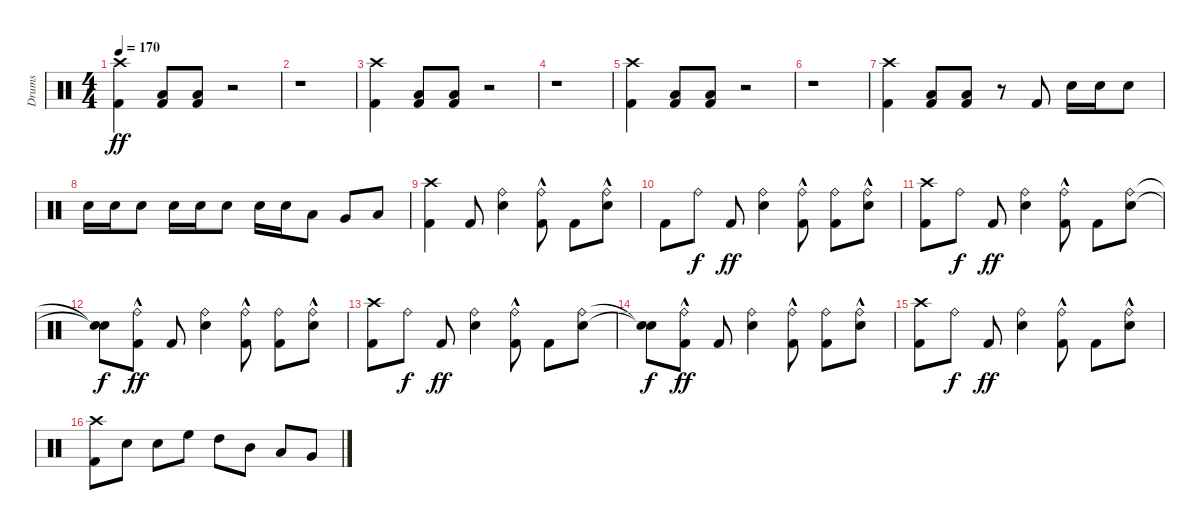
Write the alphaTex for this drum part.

\track ("Drums" "Drums") {instrument percussion}
\staff {score}
\articulation defaults
\ts (4 4)
\tempo 170
\clef neutral
\ks c
("Kick (hit) 2" "Crash high (hit)").4{dy ff} ("Kick (hit) 2" "Low Floor Tom (hit)").8 ("Kick (hit) 2" "Low Floor Tom (hit)").8 r.2 |
r.1 |
("Kick (hit) 2" "Crash high (hit)").4 ("Kick (hit) 2" "Low Floor Tom (hit)").8 ("Kick (hit) 2" "Low Floor Tom (hit)").8 r.2 |
r.1 |
("Kick (hit) 2" "Crash high (hit)").4 ("Kick (hit) 2" "Low Floor Tom (hit)").8 ("Kick (hit) 2" "Low Floor Tom (hit)").8 r.2 |
r.1 |
("Kick (hit) 2" "Crash high (hit)").4 ("Kick (hit) 2" "Low Floor Tom (hit)").8 ("Kick (hit) 2" "Low Floor Tom (hit)").8 r.8 "Kick (hit) 2".8 "Snare (hit) 2".16 "Snare (hit) 2".16 "Snare (hit) 2".8 |
"Snare (hit) 2".16 "Snare (hit) 2".16 "Snare (hit) 2".8 "Snare (hit) 2".16 "Snare (hit) 2".16 "Snare (hit) 2".8 "Snare (hit) 2".16 "Snare (hit) 2".16 "Low Tom (hit)".8 "Very Low Tom (hit)".8 "Low Floor Tom (hit)".8 |
("Kick (hit) 2" "Crash high (hit)").4 "Kick (hit) 2".8 ("Snare (hit) 2" "Ride (bell)").4 ("Kick (hit) 2" "Ride (bell)"{hac}).8 "Kick (hit) 2".8 ("Snare (hit) 2" "Ride (bell)"{hac}).8 |
"Kick (hit) 2".8 "Ride (bell)".8{dy f} "Kick (hit) 2".8{dy ff} ("Snare (hit) 2" "Ride (bell)").4 ("Kick (hit) 2" "Ride (bell)"{hac}).8 ("Kick (hit) 2" "Ride (bell)").8 ("Snare (hit) 2" "Ride (bell)"{hac}).8 |
("Kick (hit) 2" "Crash high (hit)").8 "Ride (bell)".8{dy f} "Kick (hit) 2".8{dy ff} ("Snare (hit) 2" "Ride (bell)").4 ("Kick (hit) 2" "Ride (bell)"{hac}).8 "Kick (hit) 2".8 ("Snare (hit) 2" "Ride (bell)").8 |
("Snare (hit)"{t} "Snare (hit)"{t}).8{dy f} ("Kick (hit) 2" "Ride (bell)"{hac}).8{dy ff} "Kick (hit) 2".8 ("Snare (hit) 2" "Ride (bell)").4 ("Kick (hit) 2" "Ride (bell)"{hac}).8 ("Kick (hit) 2" "Ride (bell)").8 ("Snare (hit) 2" "Ride (bell)"{hac}).8 |
("Kick (hit) 2" "Crash high (hit)").8 "Ride (bell)".8{dy f} "Kick (hit) 2".8{dy ff} ("Snare (hit) 2" "Ride (bell)").4 ("Kick (hit) 2" "Ride (bell)"{hac}).8 "Kick (hit) 2".8 ("Snare (hit) 2" "Ride (bell)").8 |
("Snare (hit)"{t} "Snare (hit)"{t}).8{dy f} ("Kick (hit) 2" "Ride (bell)"{hac}).8{dy ff} "Kick (hit) 2".8 ("Snare (hit) 2" "Ride (bell)").4 ("Kick (hit) 2" "Ride (bell)"{hac}).8 ("Kick (hit) 2" "Ride (bell)").8 ("Snare (hit) 2" "Ride (bell)"{hac}).8 |
("Kick (hit) 2" "Crash high (hit)").8 "Ride (bell)".8{dy f} "Kick (hit) 2".8{dy ff} ("Snare (hit) 2" "Ride (bell)").4 ("Kick (hit) 2" "Ride (bell)"{hac}).8 "Kick (hit) 2".8 ("Snare (hit) 2" "Ride (bell)"{hac}).8 |
("Kick (hit) 2" "Crash high (hit)").8 "Snare (hit) 2".8 "Snare (hit) 2".8 "High Floor Tom (hit)".8 "High Tom (hit)".8 "Mid Tom (hit)".8 "Low Tom (hit)".8 "Very Low Tom (hit)".8
